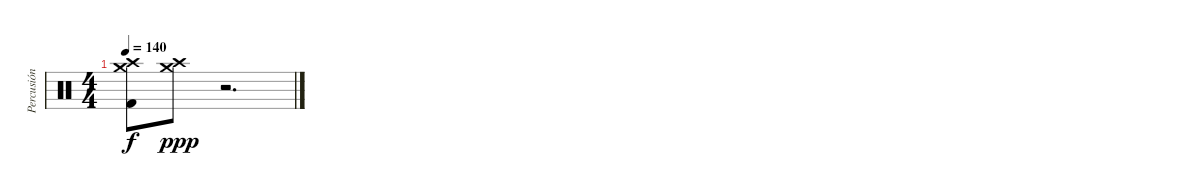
\track ("Percusión" "Percusión") {instrument percussion}
\staff {score}
\articulation defaults
\ts (4 4)
\tempo 140
\clef neutral
\ks c
("Crash medium (hit)" "Crash high (hit)" "Kick (hit) 2").8{dy f} ("Crash medium (hit)" "Crash high (hit)").8{dy ppp} r.2{d}
